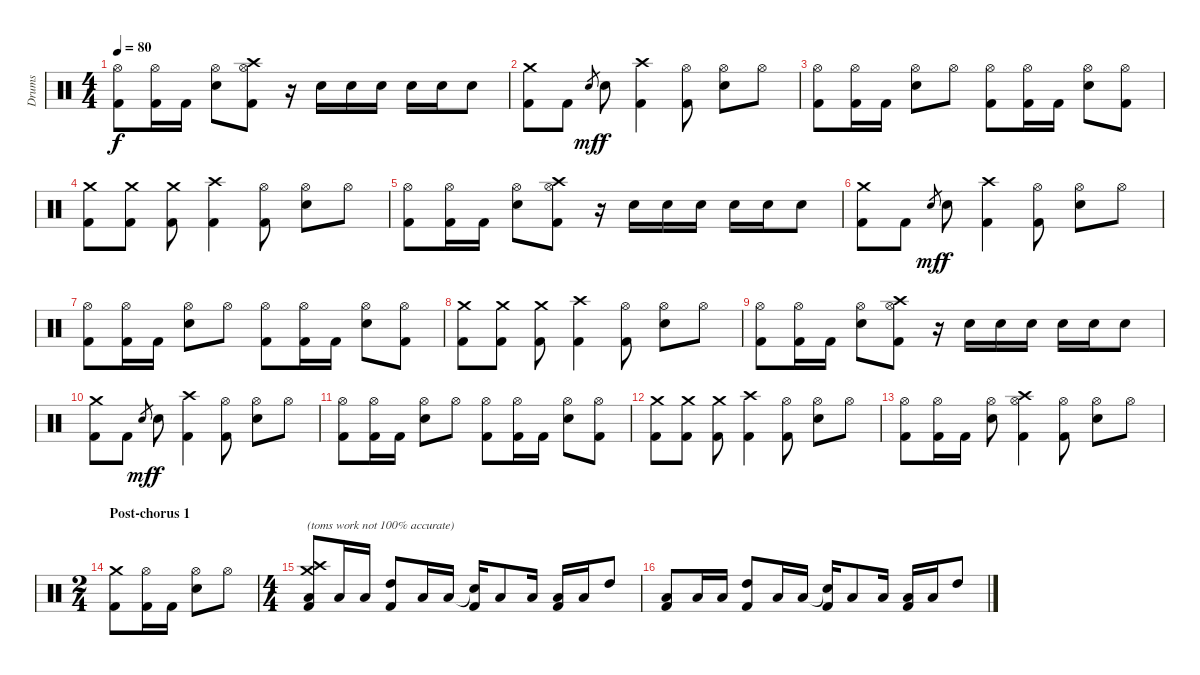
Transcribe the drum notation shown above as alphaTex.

\track ("Drums" "Drums") {instrument percussion}
\staff {score}
\articulation defaults
\ts (4 4)
\tempo 80
\clef neutral
\ks c
("Hi-Hat (open)" "Kick (hit) 2").8{dy f} ("Hi-Hat (open)" "Kick (hit) 2").16 "Kick (hit) 2".16 ("Hi-Hat (open)" "Electric Snare (hit)").8 ("Hi-Hat (open)" "Crash high (hit)" "Kick (hit) 2").8 r.16 "Electric Snare (hit)".16 "Electric Snare (hit)".16 "Electric Snare (hit)".16 "Electric Snare (hit)".16 "Electric Snare (hit)".16 "Electric Snare (hit)".8 |
("Crash medium (hit)" "Kick (hit) 2").8 "Kick (hit) 2".8 "Electric Snare (hit)".8{gr dy mf} "Electric Snare (hit)".8{dy f} ("Crash high (hit)" "Kick (hit) 2").4 ("Hi-Hat (open)" "Kick (hit) 2").8 ("Hi-Hat (open)" "Electric Snare (hit)").8 "Hi-Hat (open)".8 |
("Hi-Hat (open)" "Kick (hit) 2").8 ("Hi-Hat (open)" "Kick (hit) 2").16 "Kick (hit) 2".16 ("Hi-Hat (open)" "Electric Snare (hit)").8 "Hi-Hat (open)".8 ("Hi-Hat (open)" "Kick (hit) 2").8 ("Hi-Hat (open)" "Kick (hit) 2").16 "Kick (hit) 2".16 ("Hi-Hat (open)" "Electric Snare (hit)").8 ("Hi-Hat (open)" "Kick (hit) 2").8 |
("Crash medium (hit)" "Kick (hit) 2").8 ("Crash medium (hit)" "Kick (hit) 2").8 ("Crash medium (hit)" "Kick (hit) 2").8 ("Crash high (hit)" "Kick (hit) 2").4 ("Hi-Hat (open)" "Kick (hit) 2").8 ("Hi-Hat (open)" "Electric Snare (hit)").8 "Hi-Hat (open)".8 |
("Hi-Hat (open)" "Kick (hit) 2").8 ("Hi-Hat (open)" "Kick (hit) 2").16 "Kick (hit) 2".16 ("Hi-Hat (open)" "Electric Snare (hit)").8 ("Hi-Hat (open)" "Crash high (hit)" "Kick (hit) 2").8 r.16 "Electric Snare (hit)".16 "Electric Snare (hit)".16 "Electric Snare (hit)".16 "Electric Snare (hit)".16 "Electric Snare (hit)".16 "Electric Snare (hit)".8 |
("Crash medium (hit)" "Kick (hit) 2").8 "Kick (hit) 2".8 "Electric Snare (hit)".8{gr dy mf} "Electric Snare (hit)".8{dy f} ("Crash high (hit)" "Kick (hit) 2").4 ("Hi-Hat (open)" "Kick (hit) 2").8 ("Hi-Hat (open)" "Electric Snare (hit)").8 "Hi-Hat (open)".8 |
("Hi-Hat (open)" "Kick (hit) 2").8 ("Hi-Hat (open)" "Kick (hit) 2").16 "Kick (hit) 2".16 ("Hi-Hat (open)" "Electric Snare (hit)").8 "Hi-Hat (open)".8 ("Hi-Hat (open)" "Kick (hit) 2").8 ("Hi-Hat (open)" "Kick (hit) 2").16 "Kick (hit) 2".16 ("Hi-Hat (open)" "Electric Snare (hit)").8 ("Hi-Hat (open)" "Kick (hit) 2").8 |
("Crash medium (hit)" "Kick (hit) 2").8 ("Crash medium (hit)" "Kick (hit) 2").8 ("Crash medium (hit)" "Kick (hit) 2").8 ("Crash high (hit)" "Kick (hit) 2").4 ("Hi-Hat (open)" "Kick (hit) 2").8 ("Hi-Hat (open)" "Electric Snare (hit)").8 "Hi-Hat (open)".8 |
("Hi-Hat (open)" "Kick (hit) 2").8 ("Hi-Hat (open)" "Kick (hit) 2").16 "Kick (hit) 2".16 ("Hi-Hat (open)" "Electric Snare (hit)").8 ("Hi-Hat (open)" "Crash high (hit)" "Kick (hit) 2").8 r.16 "Electric Snare (hit)".16 "Electric Snare (hit)".16 "Electric Snare (hit)".16 "Electric Snare (hit)".16 "Electric Snare (hit)".16 "Electric Snare (hit)".8 |
("Crash medium (hit)" "Kick (hit) 2").8 "Kick (hit) 2".8 "Electric Snare (hit)".8{gr dy mf} "Electric Snare (hit)".8{dy f} ("Crash high (hit)" "Kick (hit) 2").4 ("Hi-Hat (open)" "Kick (hit) 2").8 ("Hi-Hat (open)" "Electric Snare (hit)").8 "Hi-Hat (open)".8 |
("Hi-Hat (open)" "Kick (hit) 2").8 ("Hi-Hat (open)" "Kick (hit) 2").16 "Kick (hit) 2".16 ("Hi-Hat (open)" "Electric Snare (hit)").8 "Hi-Hat (open)".8 ("Hi-Hat (open)" "Kick (hit) 2").8 ("Hi-Hat (open)" "Kick (hit) 2").16 "Kick (hit) 2".16 ("Hi-Hat (open)" "Electric Snare (hit)").8 ("Hi-Hat (open)" "Kick (hit) 2").8 |
("Crash medium (hit)" "Kick (hit) 2").8 ("Crash medium (hit)" "Kick (hit) 2").8 ("Crash medium (hit)" "Kick (hit) 2").8 ("Crash high (hit)" "Kick (hit) 2").4 ("Hi-Hat (open)" "Kick (hit) 2").8 ("Hi-Hat (open)" "Electric Snare (hit)").8 "Hi-Hat (open)".8 |
("Hi-Hat (open)" "Kick (hit) 2").8 ("Hi-Hat (open)" "Kick (hit) 2").16 "Kick (hit) 2".16 ("Hi-Hat (open)" "Electric Snare (hit)").8 ("Hi-Hat (open)" "Crash high (hit)" "Kick (hit) 2").4 ("Hi-Hat (open)" "Kick (hit) 2").8 ("Hi-Hat (open)" "Electric Snare (hit)").8 "Hi-Hat (open)".8 |
\ts (2 4)
\section ("" "Post-chorus 1")
("Crash medium (hit)" "Kick (hit) 2").8 ("Hi-Hat (open)" "Kick (hit) 2").16 "Kick (hit) 2".16 ("Hi-Hat (open)" "Electric Snare (hit)").8 "Hi-Hat (open)".8 |
\ts (4 4)
("Crash high (hit)" "Crash medium (hit)" "Low Tom (hit)" "Kick (hit) 2").8{txt "(toms work not 100% accurate)"} "Low Tom (hit)".16 "Low Tom (hit)".16 ("High Tom (hit)" "Kick (hit) 2").8 "Low Tom (hit)".16 "Low Tom (hit)".16 ("Snare (hit)"{t} "Kick (hit) 2").16 "Low Tom (hit)".8 "Low Tom (hit)".16 ("Low Tom (hit)" "Kick (hit) 2").16 "Low Tom (hit)".16 "High Tom (hit)".8 |
("Low Tom (hit)" "Kick (hit) 2").8 "Low Tom (hit)".16 "Low Tom (hit)".16 ("High Tom (hit)" "Kick (hit) 2").8 "Low Tom (hit)".16 "Low Tom (hit)".16 ("Snare (hit)"{t} "Kick (hit) 2").16 "Low Tom (hit)".8 "Low Tom (hit)".16 ("Low Tom (hit)" "Kick (hit) 2").16 "Low Tom (hit)".16 "High Tom (hit)".8
